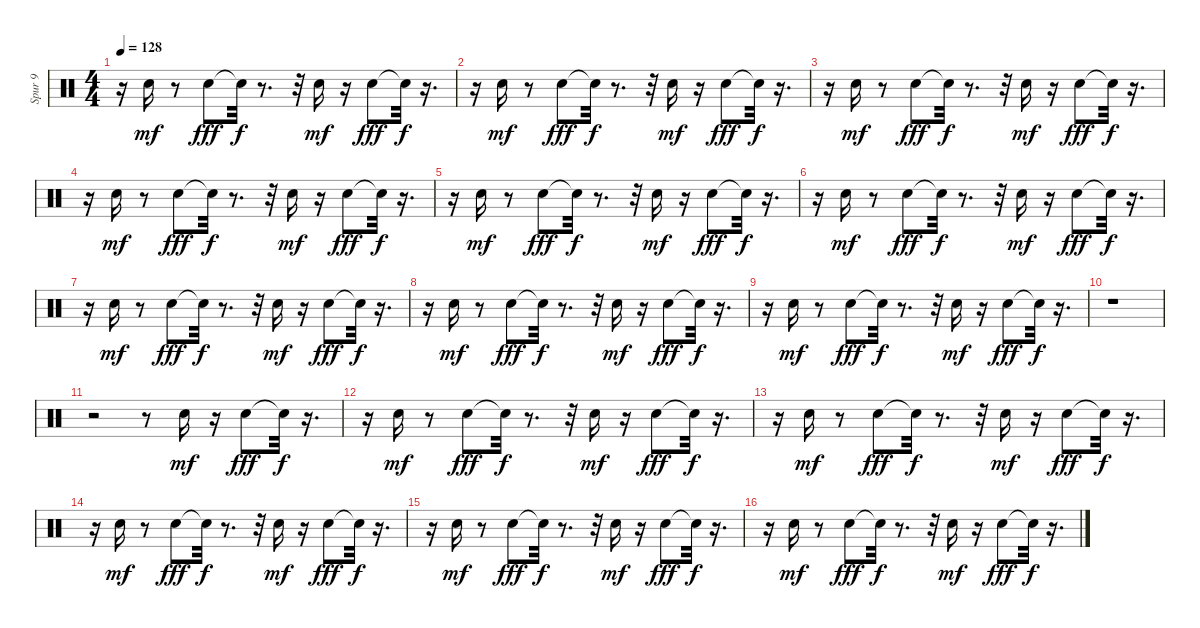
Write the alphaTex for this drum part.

\track ("Spur 9" "Spur 9") {instrument percussion}
\staff {score}
\articulation defaults
\ts (4 4)
\tempo 128
\clef neutral
\ks c
r.16{dy f} "Snare (hit) 2".16{dy mf} r.8 "Electric Snare (hit)".8{dy fff} "Snare (hit)"{t}.32{dy f} r.8{d} r.32 "Snare (hit) 2".16{dy mf} r.16 "Electric Snare (hit)".8{dy fff} "Snare (hit)"{t}.32{dy f} r.16{d} |
r.16 "Snare (hit) 2".16{dy mf} r.8 "Electric Snare (hit)".8{dy fff} "Snare (hit)"{t}.32{dy f} r.8{d} r.32 "Snare (hit) 2".16{dy mf} r.16 "Electric Snare (hit)".8{dy fff} "Snare (hit)"{t}.32{dy f} r.16{d} |
r.16 "Snare (hit) 2".16{dy mf} r.8 "Electric Snare (hit)".8{dy fff} "Snare (hit)"{t}.32{dy f} r.8{d} r.32 "Snare (hit) 2".16{dy mf} r.16 "Electric Snare (hit)".8{dy fff} "Snare (hit)"{t}.32{dy f} r.16{d} |
r.16 "Snare (hit) 2".16{dy mf} r.8 "Electric Snare (hit)".8{dy fff} "Snare (hit)"{t}.32{dy f} r.8{d} r.32 "Snare (hit) 2".16{dy mf} r.16 "Electric Snare (hit)".8{dy fff} "Snare (hit)"{t}.32{dy f} r.16{d} |
r.16 "Snare (hit) 2".16{dy mf} r.8 "Electric Snare (hit)".8{dy fff} "Snare (hit)"{t}.32{dy f} r.8{d} r.32 "Snare (hit) 2".16{dy mf} r.16 "Electric Snare (hit)".8{dy fff} "Snare (hit)"{t}.32{dy f} r.16{d} |
r.16 "Snare (hit) 2".16{dy mf} r.8 "Electric Snare (hit)".8{dy fff} "Snare (hit)"{t}.32{dy f} r.8{d} r.32 "Snare (hit) 2".16{dy mf} r.16 "Electric Snare (hit)".8{dy fff} "Snare (hit)"{t}.32{dy f} r.16{d} |
r.16 "Snare (hit) 2".16{dy mf} r.8 "Electric Snare (hit)".8{dy fff} "Snare (hit)"{t}.32{dy f} r.8{d} r.32 "Snare (hit) 2".16{dy mf} r.16 "Electric Snare (hit)".8{dy fff} "Snare (hit)"{t}.32{dy f} r.16{d} |
r.16 "Snare (hit) 2".16{dy mf} r.8 "Electric Snare (hit)".8{dy fff} "Snare (hit)"{t}.32{dy f} r.8{d} r.32 "Snare (hit) 2".16{dy mf} r.16 "Electric Snare (hit)".8{dy fff} "Snare (hit)"{t}.32{dy f} r.16{d} |
r.16 "Snare (hit) 2".16{dy mf} r.8 "Electric Snare (hit)".8{dy fff} "Snare (hit)"{t}.32{dy f} r.8{d} r.32 "Snare (hit) 2".16{dy mf} r.16 "Electric Snare (hit)".8{dy fff} "Snare (hit)"{t}.32{dy f} r.16{d} |
r.1 |
r.2 r.8 "Snare (hit) 2".16{dy mf} r.16 "Electric Snare (hit)".8{dy fff} "Snare (hit)"{t}.32{dy f} r.16{d} |
r.16 "Snare (hit) 2".16{dy mf} r.8 "Electric Snare (hit)".8{dy fff} "Snare (hit)"{t}.32{dy f} r.8{d} r.32 "Snare (hit) 2".16{dy mf} r.16 "Electric Snare (hit)".8{dy fff} "Snare (hit)"{t}.32{dy f} r.16{d} |
r.16 "Snare (hit) 2".16{dy mf} r.8 "Electric Snare (hit)".8{dy fff} "Snare (hit)"{t}.32{dy f} r.8{d} r.32 "Snare (hit) 2".16{dy mf} r.16 "Electric Snare (hit)".8{dy fff} "Snare (hit)"{t}.32{dy f} r.16{d} |
r.16 "Snare (hit) 2".16{dy mf} r.8 "Electric Snare (hit)".8{dy fff} "Snare (hit)"{t}.32{dy f} r.8{d} r.32 "Snare (hit) 2".16{dy mf} r.16 "Electric Snare (hit)".8{dy fff} "Snare (hit)"{t}.32{dy f} r.16{d} |
r.16 "Snare (hit) 2".16{dy mf} r.8 "Electric Snare (hit)".8{dy fff} "Snare (hit)"{t}.32{dy f} r.8{d} r.32 "Snare (hit) 2".16{dy mf} r.16 "Electric Snare (hit)".8{dy fff} "Snare (hit)"{t}.32{dy f} r.16{d} |
r.16 "Snare (hit) 2".16{dy mf} r.8 "Electric Snare (hit)".8{dy fff} "Snare (hit)"{t}.32{dy f} r.8{d} r.32 "Snare (hit) 2".16{dy mf} r.16 "Electric Snare (hit)".8{dy fff} "Snare (hit)"{t}.32{dy f} r.16{d}
